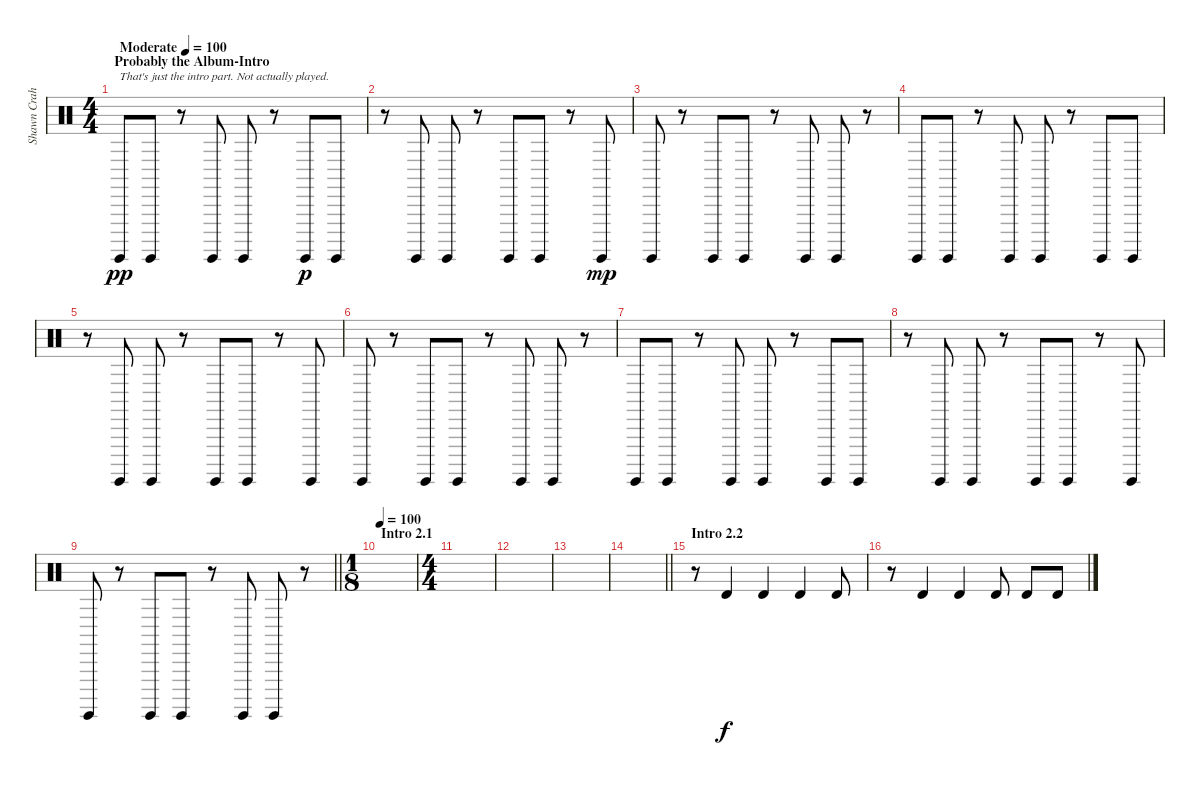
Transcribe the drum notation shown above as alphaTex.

\track ("Shawn Crahan" "Shawn Crah") {instrument percussion}
\staff {score}
\articulation defaults
\ts (4 4)
\section ("" "Probably the Album-Intro")
\tempo (100 "Moderate")
\tempo 90
\tempo (100 "Moderate")
\clef neutral
\ks c "Surdo (hit)".8{txt "That's just the intro part. Not actually played." dy pp} "Surdo (hit)".8
r.8 "Surdo (hit)".8 "Surdo (hit)".8 r.8 "Surdo (hit)".8{dy p} "Surdo (hit)".8 |
r.8 "Surdo (hit)".8 "Surdo (hit)".8 r.8 "Surdo (hit)".8 "Surdo (hit)".8 r.8 "Surdo (hit)".8{dy mp} |
"Surdo (hit)".8 r.8 "Surdo (hit)".8 "Surdo (hit)".8 r.8 "Surdo (hit)".8 "Surdo (hit)".8 r.8 |
"Surdo (hit)".8 "Surdo (hit)".8 r.8 "Surdo (hit)".8 "Surdo (hit)".8 r.8 "Surdo (hit)".8 "Surdo (hit)".8 |
r.8 "Surdo (hit)".8 "Surdo (hit)".8 r.8 "Surdo (hit)".8 "Surdo (hit)".8 r.8 "Surdo (hit)".8 |
"Surdo (hit)".8 r.8 "Surdo (hit)".8 "Surdo (hit)".8 r.8 "Surdo (hit)".8 "Surdo (hit)".8 r.8 |
"Surdo (hit)".8 "Surdo (hit)".8 r.8 "Surdo (hit)".8 "Surdo (hit)".8 r.8 "Surdo (hit)".8 "Surdo (hit)".8 |
r.8 "Surdo (hit)".8 "Surdo (hit)".8 r.8 "Surdo (hit)".8 "Surdo (hit)".8 r.8 "Surdo (hit)".8 |
\barLineRight lightlight "Surdo (hit)".8
r.8 "Surdo (hit)".8 "Surdo (hit)".8 r.8 "Surdo (hit)".8 "Surdo (hit)".8 r.8 |
\ts (1 8)
\section ("" "Intro 2.1")
\tempo 100
|
\ts (4 4)
|
|
|
\barLineRight lightlight
|
\section ("" "Intro 2.2")
r.8 "Timbale high (hit)".4{dy f} "Timbale high (hit)".4 "Timbale high (hit)".4 "Timbale high (hit)".8 |
r.8 "Timbale high (hit)".4 "Timbale high (hit)".4 "Timbale high (hit)".8 "Timbale high (hit)".8 "Timbale high (hit)".8
